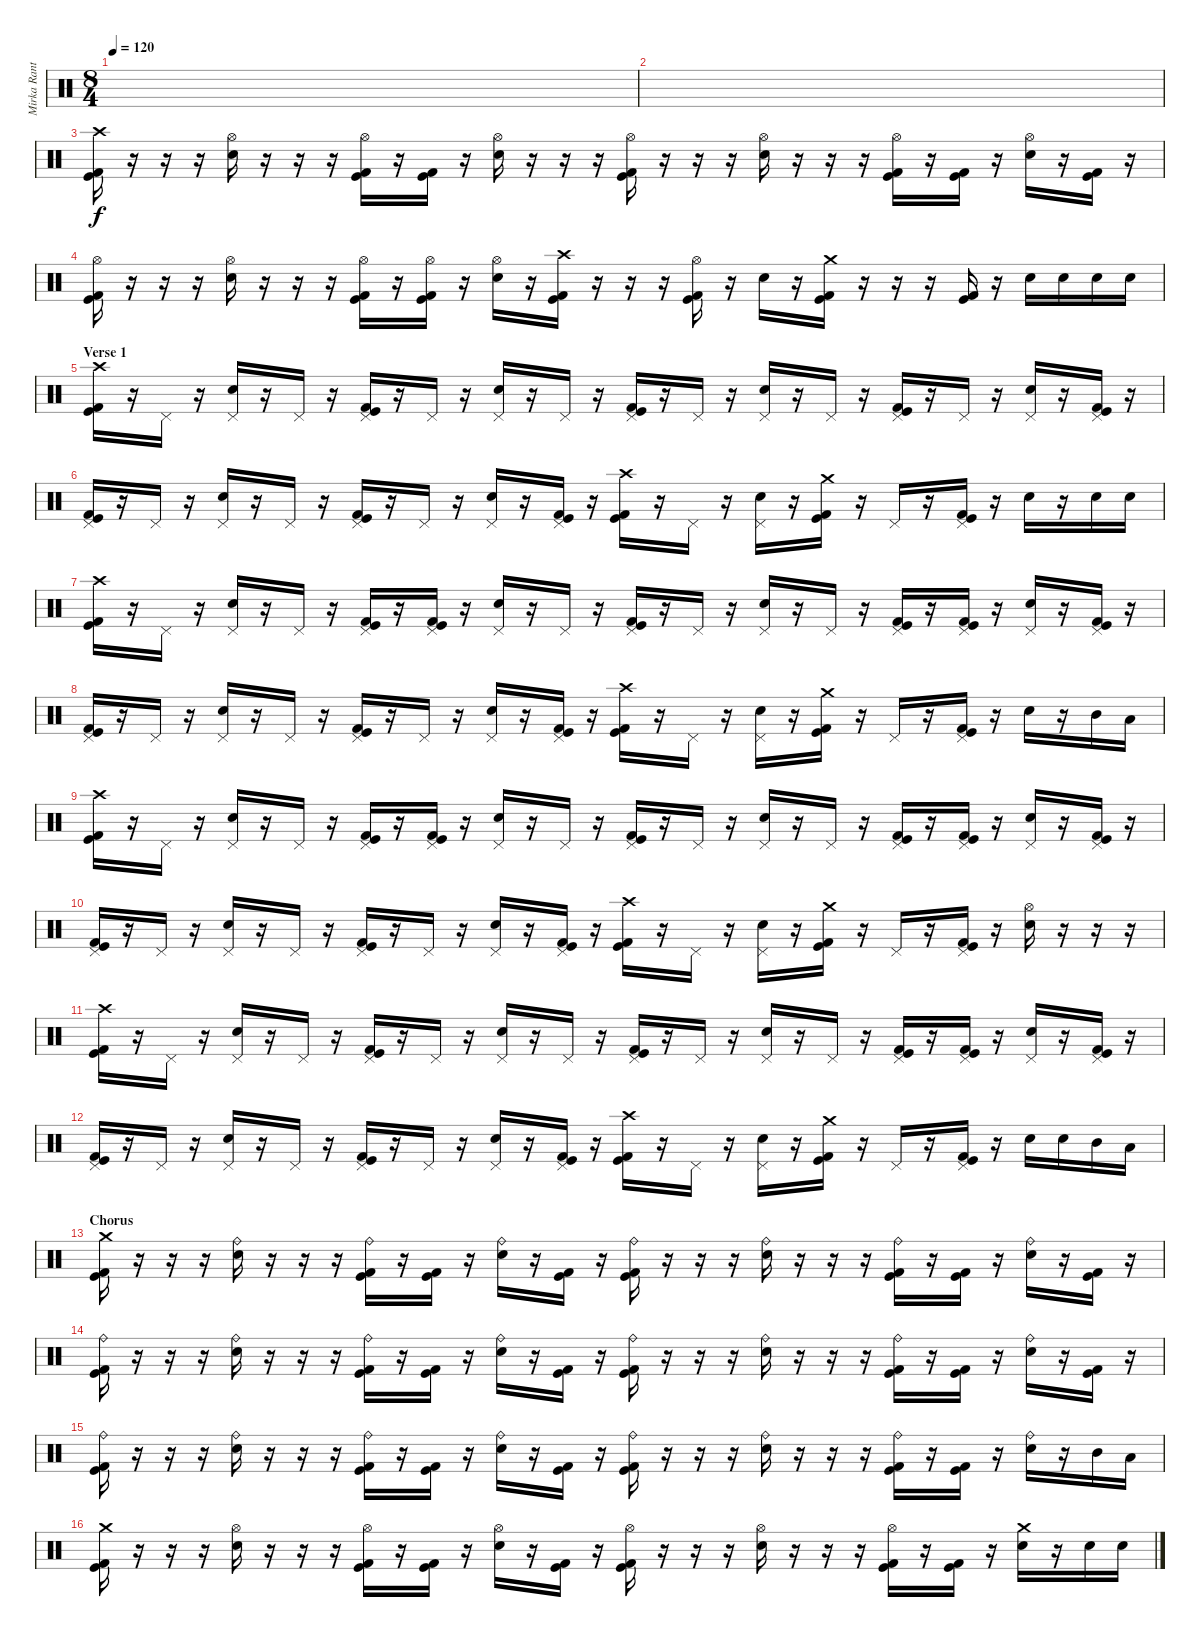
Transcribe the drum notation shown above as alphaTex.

\track ("Mirka Rantanen" "Mirka Rant") {instrument percussion}
\staff {score}
\articulation defaults
\ts (8 4)
\tempo 120
\clef neutral
\ks c
|
|
("Crash high (hit)" "Kick (hit) 2" "Kick (hit)").16 r.16 r.16 r.16 ("Hi-Hat (open)" "Electric Snare (hit)").16 r.16 r.16 r.16 ("Hi-Hat (open)" "Kick (hit) 2" "Kick (hit)").16 r.16 ("Kick (hit) 2" "Kick (hit)").16 r.16 ("Hi-Hat (open)" "Electric Snare (hit)").16 r.16 r.16 r.16 ("Hi-Hat (open)" "Kick (hit) 2" "Kick (hit)").16 r.16 r.16 r.16 ("Hi-Hat (open)" "Electric Snare (hit)").16 r.16 r.16 r.16 ("Hi-Hat (open)" "Kick (hit) 2" "Kick (hit)").16 r.16 ("Kick (hit) 2" "Kick (hit)").16 r.16 ("Hi-Hat (open)" "Electric Snare (hit)").16 r.16 ("Kick (hit) 2" "Kick (hit)").16 r.16 |
("Hi-Hat (open)" "Kick (hit) 2" "Kick (hit)").16 r.16 r.16 r.16 ("Hi-Hat (open)" "Electric Snare (hit)").16 r.16 r.16 r.16 ("Hi-Hat (open)" "Kick (hit) 2" "Kick (hit)").16 r.16 ("Hi-Hat (open)" "Kick (hit) 2" "Kick (hit)").16 r.16 ("Hi-Hat (open)" "Electric Snare (hit)").16 r.16 ("Crash high (hit)" "Kick (hit) 2" "Kick (hit)").16 r.16 r.16 r.16 ("Hi-Hat (open)" "Kick (hit) 2" "Kick (hit)").16 r.16 "Electric Snare (hit)".16 r.16 ("Crash medium (hit)" "Kick (hit) 2" "Kick (hit)").16 r.16 r.16 r.16 ("Kick (hit) 2" "Kick (hit)").16 r.16 "Electric Snare (hit)".16 "Electric Snare (hit)".16 "Electric Snare (hit)".16 "Electric Snare (hit)".16 |
\section ("" "Verse 1")
("Crash high (hit)" "Kick (hit) 2" "Kick (hit)").16 r.16 "Pedal Hi-Hat (hit)".16 r.16 ("Pedal Hi-Hat (hit)" "Electric Snare (hit)").16 r.16 "Pedal Hi-Hat (hit)".16 r.16 ("Pedal Hi-Hat (hit)" "Kick (hit) 2" "Kick (hit)").16 r.16 "Pedal Hi-Hat (hit)".16 r.16 ("Pedal Hi-Hat (hit)" "Electric Snare (hit)").16 r.16 "Pedal Hi-Hat (hit)".16 r.16 ("Pedal Hi-Hat (hit)" "Kick (hit) 2" "Kick (hit)").16 r.16 "Pedal Hi-Hat (hit)".16 r.16 ("Pedal Hi-Hat (hit)" "Electric Snare (hit)").16 r.16 "Pedal Hi-Hat (hit)".16 r.16 ("Pedal Hi-Hat (hit)" "Kick (hit) 2" "Kick (hit)").16 r.16 "Pedal Hi-Hat (hit)".16 r.16 ("Pedal Hi-Hat (hit)" "Electric Snare (hit)").16 r.16 ("Pedal Hi-Hat (hit)" "Kick (hit) 2" "Kick (hit)").16 r.16 |
("Pedal Hi-Hat (hit)" "Kick (hit) 2" "Kick (hit)").16 r.16 "Pedal Hi-Hat (hit)".16 r.16 ("Pedal Hi-Hat (hit)" "Electric Snare (hit)").16 r.16 "Pedal Hi-Hat (hit)".16 r.16 ("Pedal Hi-Hat (hit)" "Kick (hit) 2" "Kick (hit)").16 r.16 "Pedal Hi-Hat (hit)".16 r.16 ("Pedal Hi-Hat (hit)" "Electric Snare (hit)").16 r.16 ("Pedal Hi-Hat (hit)" "Kick (hit) 2" "Kick (hit)").16 r.16 ("Crash high (hit)" "Kick (hit) 2" "Kick (hit)").16 r.16 "Pedal Hi-Hat (hit)".16 r.16 ("Pedal Hi-Hat (hit)" "Electric Snare (hit)").16 r.16 ("Crash medium (hit)" "Kick (hit) 2" "Kick (hit)").16 r.16 "Pedal Hi-Hat (hit)".16 r.16 ("Pedal Hi-Hat (hit)" "Kick (hit)" "Kick (hit) 2").16 r.16 "Electric Snare (hit)".16 r.16 "Electric Snare (hit)".16 "Electric Snare (hit)".16 |
("Crash high (hit)" "Kick (hit) 2" "Kick (hit)").16 r.16 "Pedal Hi-Hat (hit)".16 r.16 ("Pedal Hi-Hat (hit)" "Electric Snare (hit)").16 r.16 "Pedal Hi-Hat (hit)".16 r.16 ("Pedal Hi-Hat (hit)" "Kick (hit) 2" "Kick (hit)").16 r.16 ("Pedal Hi-Hat (hit)" "Kick (hit) 2" "Kick (hit)").16 r.16 ("Pedal Hi-Hat (hit)" "Electric Snare (hit)").16 r.16 "Pedal Hi-Hat (hit)".16 r.16 ("Pedal Hi-Hat (hit)" "Kick (hit) 2" "Kick (hit)").16 r.16 "Pedal Hi-Hat (hit)".16 r.16 ("Pedal Hi-Hat (hit)" "Electric Snare (hit)").16 r.16 "Pedal Hi-Hat (hit)".16 r.16 ("Pedal Hi-Hat (hit)" "Kick (hit) 2" "Kick (hit)").16 r.16 ("Pedal Hi-Hat (hit)" "Kick (hit) 2" "Kick (hit)").16 r.16 ("Pedal Hi-Hat (hit)" "Electric Snare (hit)").16 r.16 ("Pedal Hi-Hat (hit)" "Kick (hit) 2" "Kick (hit)").16 r.16 |
("Pedal Hi-Hat (hit)" "Kick (hit) 2" "Kick (hit)").16 r.16 "Pedal Hi-Hat (hit)".16 r.16 ("Pedal Hi-Hat (hit)" "Electric Snare (hit)").16 r.16 "Pedal Hi-Hat (hit)".16 r.16 ("Pedal Hi-Hat (hit)" "Kick (hit) 2" "Kick (hit)").16 r.16 "Pedal Hi-Hat (hit)".16 r.16 ("Pedal Hi-Hat (hit)" "Electric Snare (hit)").16 r.16 ("Pedal Hi-Hat (hit)" "Kick (hit) 2" "Kick (hit)").16 r.16 ("Crash high (hit)" "Kick (hit) 2" "Kick (hit)").16 r.16 "Pedal Hi-Hat (hit)".16 r.16 ("Pedal Hi-Hat (hit)" "Electric Snare (hit)").16 r.16 ("Crash medium (hit)" "Kick (hit) 2" "Kick (hit)").16 r.16 "Pedal Hi-Hat (hit)".16 r.16 ("Pedal Hi-Hat (hit)" "Kick (hit)" "Kick (hit) 2").16 r.16 "Electric Snare (hit)".16 r.16 "Mid Tom (hit)".16 "Low Tom (hit)".16 |
("Crash high (hit)" "Kick (hit) 2" "Kick (hit)").16 r.16 "Pedal Hi-Hat (hit)".16 r.16 ("Pedal Hi-Hat (hit)" "Electric Snare (hit)").16 r.16 "Pedal Hi-Hat (hit)".16 r.16 ("Pedal Hi-Hat (hit)" "Kick (hit) 2" "Kick (hit)").16 r.16 ("Pedal Hi-Hat (hit)" "Kick (hit) 2" "Kick (hit)").16 r.16 ("Pedal Hi-Hat (hit)" "Electric Snare (hit)").16 r.16 "Pedal Hi-Hat (hit)".16 r.16 ("Pedal Hi-Hat (hit)" "Kick (hit) 2" "Kick (hit)").16 r.16 "Pedal Hi-Hat (hit)".16 r.16 ("Pedal Hi-Hat (hit)" "Electric Snare (hit)").16 r.16 "Pedal Hi-Hat (hit)".16 r.16 ("Pedal Hi-Hat (hit)" "Kick (hit) 2" "Kick (hit)").16 r.16 ("Pedal Hi-Hat (hit)" "Kick (hit) 2" "Kick (hit)").16 r.16 ("Pedal Hi-Hat (hit)" "Electric Snare (hit)").16 r.16 ("Pedal Hi-Hat (hit)" "Kick (hit) 2" "Kick (hit)").16 r.16 |
("Pedal Hi-Hat (hit)" "Kick (hit) 2" "Kick (hit)").16 r.16 "Pedal Hi-Hat (hit)".16 r.16 ("Pedal Hi-Hat (hit)" "Electric Snare (hit)").16 r.16 "Pedal Hi-Hat (hit)".16 r.16 ("Pedal Hi-Hat (hit)" "Kick (hit) 2" "Kick (hit)").16 r.16 "Pedal Hi-Hat (hit)".16 r.16 ("Pedal Hi-Hat (hit)" "Electric Snare (hit)").16 r.16 ("Pedal Hi-Hat (hit)" "Kick (hit) 2" "Kick (hit)").16 r.16 ("Crash high (hit)" "Kick (hit) 2" "Kick (hit)").16 r.16 "Pedal Hi-Hat (hit)".16 r.16 ("Pedal Hi-Hat (hit)" "Electric Snare (hit)").16 r.16 ("Crash medium (hit)" "Kick (hit) 2" "Kick (hit)").16 r.16 "Pedal Hi-Hat (hit)".16 r.16 ("Pedal Hi-Hat (hit)" "Kick (hit)" "Kick (hit) 2").16 r.16 ("Hi-Hat (open)" "Electric Snare (hit)").16 r.16 r.16 r.16 |
("Crash high (hit)" "Kick (hit) 2" "Kick (hit)").16 r.16 "Pedal Hi-Hat (hit)".16 r.16 ("Pedal Hi-Hat (hit)" "Electric Snare (hit)").16 r.16 "Pedal Hi-Hat (hit)".16 r.16 ("Pedal Hi-Hat (hit)" "Kick (hit) 2" "Kick (hit)").16 r.16 "Pedal Hi-Hat (hit)".16 r.16 ("Pedal Hi-Hat (hit)" "Electric Snare (hit)").16 r.16 "Pedal Hi-Hat (hit)".16 r.16 ("Pedal Hi-Hat (hit)" "Kick (hit) 2" "Kick (hit)").16 r.16 "Pedal Hi-Hat (hit)".16 r.16 ("Pedal Hi-Hat (hit)" "Electric Snare (hit)").16 r.16 "Pedal Hi-Hat (hit)".16 r.16 ("Pedal Hi-Hat (hit)" "Kick (hit) 2" "Kick (hit)").16 r.16 ("Pedal Hi-Hat (hit)" "Kick (hit) 2" "Kick (hit)").16 r.16 ("Pedal Hi-Hat (hit)" "Electric Snare (hit)").16 r.16 ("Pedal Hi-Hat (hit)" "Kick (hit) 2" "Kick (hit)").16 r.16 |
("Pedal Hi-Hat (hit)" "Kick (hit) 2" "Kick (hit)").16 r.16 "Pedal Hi-Hat (hit)".16 r.16 ("Pedal Hi-Hat (hit)" "Electric Snare (hit)").16 r.16 "Pedal Hi-Hat (hit)".16 r.16 ("Pedal Hi-Hat (hit)" "Kick (hit) 2" "Kick (hit)").16 r.16 "Pedal Hi-Hat (hit)".16 r.16 ("Pedal Hi-Hat (hit)" "Electric Snare (hit)").16 r.16 ("Pedal Hi-Hat (hit)" "Kick (hit) 2" "Kick (hit)").16 r.16 ("Crash high (hit)" "Kick (hit) 2" "Kick (hit)").16 r.16 "Pedal Hi-Hat (hit)".16 r.16 ("Pedal Hi-Hat (hit)" "Electric Snare (hit)").16 r.16 ("Crash medium (hit)" "Kick (hit) 2" "Kick (hit)").16 r.16 "Pedal Hi-Hat (hit)".16 r.16 ("Pedal Hi-Hat (hit)" "Kick (hit)" "Kick (hit) 2").16 r.16 "Electric Snare (hit)".16 "Electric Snare (hit)".16 "Mid Tom (hit)".16 "Low Tom (hit)".16 |
\section ("" "Chorus")
("Crash medium (hit)" "Kick (hit) 2" "Kick (hit)").16 r.16 r.16 r.16 ("Ride (bell)" "Electric Snare (hit)").16 r.16 r.16 r.16 ("Ride (bell)" "Kick (hit) 2" "Kick (hit)").16 r.16 ("Kick (hit) 2" "Kick (hit)").16 r.16 ("Ride (bell)" "Electric Snare (hit)").16 r.16 ("Kick (hit) 2" "Kick (hit)").16 r.16 ("Ride (bell)" "Kick (hit) 2" "Kick (hit)").16 r.16 r.16 r.16 ("Ride (bell)" "Electric Snare (hit)").16 r.16 r.16 r.16 ("Ride (bell)" "Kick (hit) 2" "Kick (hit)").16 r.16 ("Kick (hit) 2" "Kick (hit)").16 r.16 ("Ride (bell)" "Electric Snare (hit)").16 r.16 ("Kick (hit) 2" "Kick (hit)").16 r.16 |
("Ride (bell)" "Kick (hit) 2" "Kick (hit)").16 r.16 r.16 r.16 ("Ride (bell)" "Electric Snare (hit)").16 r.16 r.16 r.16 ("Ride (bell)" "Kick (hit) 2" "Kick (hit)").16 r.16 ("Kick (hit) 2" "Kick (hit)").16 r.16 ("Ride (bell)" "Electric Snare (hit)").16 r.16 ("Kick (hit) 2" "Kick (hit)").16 r.16 ("Ride (bell)" "Kick (hit) 2" "Kick (hit)").16 r.16 r.16 r.16 ("Ride (bell)" "Electric Snare (hit)").16 r.16 r.16 r.16 ("Ride (bell)" "Kick (hit) 2" "Kick (hit)").16 r.16 ("Kick (hit) 2" "Kick (hit)").16 r.16 ("Ride (bell)" "Electric Snare (hit)").16 r.16 ("Kick (hit) 2" "Kick (hit)").16 r.16 |
("Ride (bell)" "Kick (hit) 2" "Kick (hit)").16 r.16 r.16 r.16 ("Ride (bell)" "Electric Snare (hit)").16 r.16 r.16 r.16 ("Ride (bell)" "Kick (hit) 2" "Kick (hit)").16 r.16 ("Kick (hit) 2" "Kick (hit)").16 r.16 ("Ride (bell)" "Electric Snare (hit)").16 r.16 ("Kick (hit) 2" "Kick (hit)").16 r.16 ("Ride (bell)" "Kick (hit) 2" "Kick (hit)").16 r.16 r.16 r.16 ("Ride (bell)" "Electric Snare (hit)").16 r.16 r.16 r.16 ("Ride (bell)" "Kick (hit) 2" "Kick (hit)").16 r.16 ("Kick (hit) 2" "Kick (hit)").16 r.16 ("Ride (bell)" "Electric Snare (hit)").16 r.16 "Mid Tom (hit)".16 "Low Tom (hit)".16 |
("Crash medium (hit)" "Kick (hit) 2" "Kick (hit)").16 r.16 r.16 r.16 ("Hi-Hat (open)" "Electric Snare (hit)").16 r.16 r.16 r.16 ("Hi-Hat (open)" "Kick (hit) 2" "Kick (hit)").16 r.16 ("Kick (hit) 2" "Kick (hit)").16 r.16 ("Hi-Hat (open)" "Electric Snare (hit)").16 r.16 ("Kick (hit) 2" "Kick (hit)").16 r.16 ("Hi-Hat (open)" "Kick (hit) 2" "Kick (hit)").16 r.16 r.16 r.16 ("Hi-Hat (open)" "Electric Snare (hit)").16 r.16 r.16 r.16 ("Hi-Hat (open)" "Kick (hit) 2" "Kick (hit)").16 r.16 ("Kick (hit) 2" "Kick (hit)").16 r.16 ("Crash medium (hit)" "Electric Snare (hit)").16 r.16 "Electric Snare (hit)".16 "Electric Snare (hit)".16
